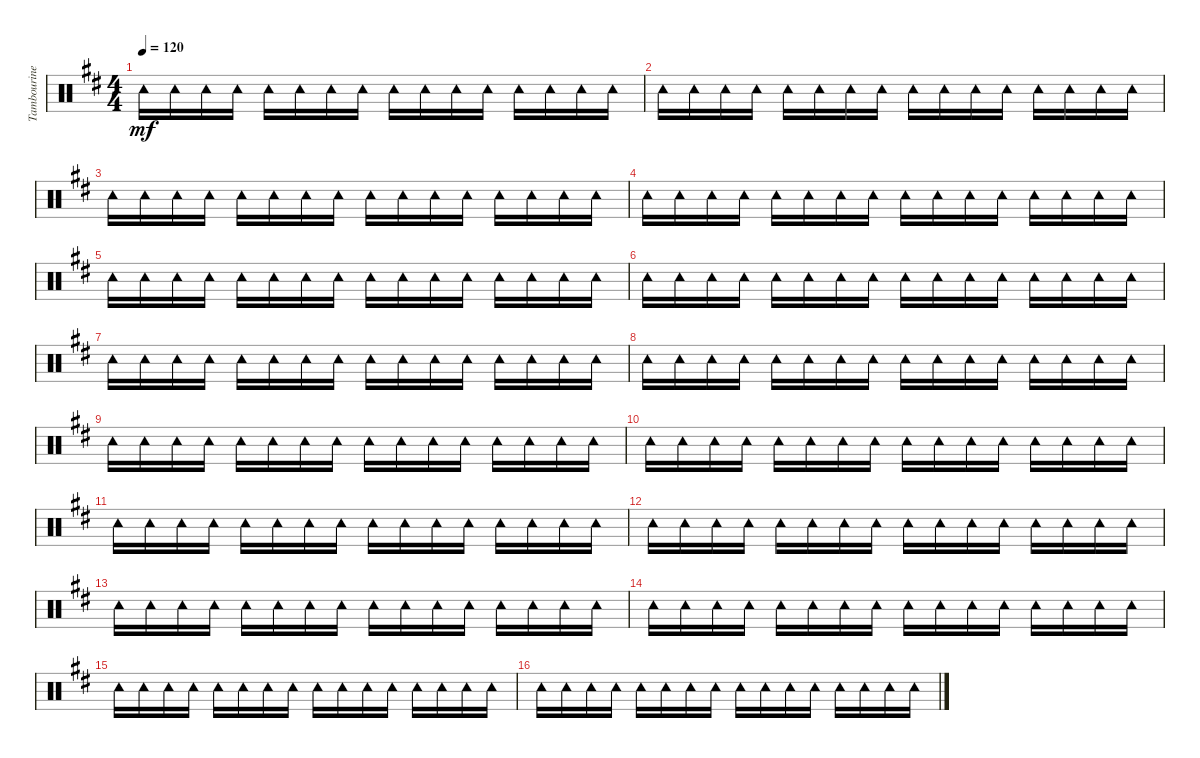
\track ("Tambourine" "Tambourine") {instrument percussion}
\staff {score}
\articulation defaults
\ts (4 4)
\tempo 120
\clef neutral
\ks d "Tambourine (hit)".16{dy mf} "Tambourine (hit)".16 "Tambourine (hit)".16 "Tambourine (hit)".16 "Tambourine (hit)".16 "Tambourine (hit)".16 "Tambourine (hit)".16 "Tambourine (hit)".16 "Tambourine (hit)".16 "Tambourine (hit)".16 "Tambourine (hit)".16 "Tambourine (hit)".16 "Tambourine (hit)".16 "Tambourine (hit)".16 "Tambourine (hit)".16 "Tambourine (hit)".16
|
"Tambourine (hit)".16 "Tambourine (hit)".16 "Tambourine (hit)".16 "Tambourine (hit)".16 "Tambourine (hit)".16 "Tambourine (hit)".16 "Tambourine (hit)".16 "Tambourine (hit)".16 "Tambourine (hit)".16 "Tambourine (hit)".16 "Tambourine (hit)".16 "Tambourine (hit)".16 "Tambourine (hit)".16 "Tambourine (hit)".16 "Tambourine (hit)".16 "Tambourine (hit)".16 |
"Tambourine (hit)".16 "Tambourine (hit)".16 "Tambourine (hit)".16 "Tambourine (hit)".16 "Tambourine (hit)".16 "Tambourine (hit)".16 "Tambourine (hit)".16 "Tambourine (hit)".16 "Tambourine (hit)".16 "Tambourine (hit)".16 "Tambourine (hit)".16 "Tambourine (hit)".16 "Tambourine (hit)".16 "Tambourine (hit)".16 "Tambourine (hit)".16 "Tambourine (hit)".16 |
"Tambourine (hit)".16 "Tambourine (hit)".16 "Tambourine (hit)".16 "Tambourine (hit)".16 "Tambourine (hit)".16 "Tambourine (hit)".16 "Tambourine (hit)".16 "Tambourine (hit)".16 "Tambourine (hit)".16 "Tambourine (hit)".16 "Tambourine (hit)".16 "Tambourine (hit)".16 "Tambourine (hit)".16 "Tambourine (hit)".16 "Tambourine (hit)".16 "Tambourine (hit)".16 |
"Tambourine (hit)".16 "Tambourine (hit)".16 "Tambourine (hit)".16 "Tambourine (hit)".16 "Tambourine (hit)".16 "Tambourine (hit)".16 "Tambourine (hit)".16 "Tambourine (hit)".16 "Tambourine (hit)".16 "Tambourine (hit)".16 "Tambourine (hit)".16 "Tambourine (hit)".16 "Tambourine (hit)".16 "Tambourine (hit)".16 "Tambourine (hit)".16 "Tambourine (hit)".16 |
"Tambourine (hit)".16 "Tambourine (hit)".16 "Tambourine (hit)".16 "Tambourine (hit)".16 "Tambourine (hit)".16 "Tambourine (hit)".16 "Tambourine (hit)".16 "Tambourine (hit)".16 "Tambourine (hit)".16 "Tambourine (hit)".16 "Tambourine (hit)".16 "Tambourine (hit)".16 "Tambourine (hit)".16 "Tambourine (hit)".16 "Tambourine (hit)".16 "Tambourine (hit)".16 |
"Tambourine (hit)".16 "Tambourine (hit)".16 "Tambourine (hit)".16 "Tambourine (hit)".16 "Tambourine (hit)".16 "Tambourine (hit)".16 "Tambourine (hit)".16 "Tambourine (hit)".16 "Tambourine (hit)".16 "Tambourine (hit)".16 "Tambourine (hit)".16 "Tambourine (hit)".16 "Tambourine (hit)".16 "Tambourine (hit)".16 "Tambourine (hit)".16 "Tambourine (hit)".16 |
"Tambourine (hit)".16 "Tambourine (hit)".16 "Tambourine (hit)".16 "Tambourine (hit)".16 "Tambourine (hit)".16 "Tambourine (hit)".16 "Tambourine (hit)".16 "Tambourine (hit)".16 "Tambourine (hit)".16 "Tambourine (hit)".16 "Tambourine (hit)".16 "Tambourine (hit)".16 "Tambourine (hit)".16 "Tambourine (hit)".16 "Tambourine (hit)".16 "Tambourine (hit)".16 |
"Tambourine (hit)".16 "Tambourine (hit)".16 "Tambourine (hit)".16 "Tambourine (hit)".16 "Tambourine (hit)".16 "Tambourine (hit)".16 "Tambourine (hit)".16 "Tambourine (hit)".16 "Tambourine (hit)".16 "Tambourine (hit)".16 "Tambourine (hit)".16 "Tambourine (hit)".16 "Tambourine (hit)".16 "Tambourine (hit)".16 "Tambourine (hit)".16 "Tambourine (hit)".16 |
"Tambourine (hit)".16 "Tambourine (hit)".16 "Tambourine (hit)".16 "Tambourine (hit)".16 "Tambourine (hit)".16 "Tambourine (hit)".16 "Tambourine (hit)".16 "Tambourine (hit)".16 "Tambourine (hit)".16 "Tambourine (hit)".16 "Tambourine (hit)".16 "Tambourine (hit)".16 "Tambourine (hit)".16 "Tambourine (hit)".16 "Tambourine (hit)".16 "Tambourine (hit)".16 |
"Tambourine (hit)".16 "Tambourine (hit)".16 "Tambourine (hit)".16 "Tambourine (hit)".16 "Tambourine (hit)".16 "Tambourine (hit)".16 "Tambourine (hit)".16 "Tambourine (hit)".16 "Tambourine (hit)".16 "Tambourine (hit)".16 "Tambourine (hit)".16 "Tambourine (hit)".16 "Tambourine (hit)".16 "Tambourine (hit)".16 "Tambourine (hit)".16 "Tambourine (hit)".16 |
"Tambourine (hit)".16 "Tambourine (hit)".16 "Tambourine (hit)".16 "Tambourine (hit)".16 "Tambourine (hit)".16 "Tambourine (hit)".16 "Tambourine (hit)".16 "Tambourine (hit)".16 "Tambourine (hit)".16 "Tambourine (hit)".16 "Tambourine (hit)".16 "Tambourine (hit)".16 "Tambourine (hit)".16 "Tambourine (hit)".16 "Tambourine (hit)".16 "Tambourine (hit)".16 |
"Tambourine (hit)".16 "Tambourine (hit)".16 "Tambourine (hit)".16 "Tambourine (hit)".16 "Tambourine (hit)".16 "Tambourine (hit)".16 "Tambourine (hit)".16 "Tambourine (hit)".16 "Tambourine (hit)".16 "Tambourine (hit)".16 "Tambourine (hit)".16 "Tambourine (hit)".16 "Tambourine (hit)".16 "Tambourine (hit)".16 "Tambourine (hit)".16 "Tambourine (hit)".16 |
"Tambourine (hit)".16 "Tambourine (hit)".16 "Tambourine (hit)".16 "Tambourine (hit)".16 "Tambourine (hit)".16 "Tambourine (hit)".16 "Tambourine (hit)".16 "Tambourine (hit)".16 "Tambourine (hit)".16 "Tambourine (hit)".16 "Tambourine (hit)".16 "Tambourine (hit)".16 "Tambourine (hit)".16 "Tambourine (hit)".16 "Tambourine (hit)".16 "Tambourine (hit)".16 |
"Tambourine (hit)".16 "Tambourine (hit)".16 "Tambourine (hit)".16 "Tambourine (hit)".16 "Tambourine (hit)".16 "Tambourine (hit)".16 "Tambourine (hit)".16 "Tambourine (hit)".16 "Tambourine (hit)".16 "Tambourine (hit)".16 "Tambourine (hit)".16 "Tambourine (hit)".16 "Tambourine (hit)".16 "Tambourine (hit)".16 "Tambourine (hit)".16 "Tambourine (hit)".16 |
"Tambourine (hit)".16 "Tambourine (hit)".16 "Tambourine (hit)".16 "Tambourine (hit)".16 "Tambourine (hit)".16 "Tambourine (hit)".16 "Tambourine (hit)".16 "Tambourine (hit)".16 "Tambourine (hit)".16 "Tambourine (hit)".16 "Tambourine (hit)".16 "Tambourine (hit)".16 "Tambourine (hit)".16 "Tambourine (hit)".16 "Tambourine (hit)".16 "Tambourine (hit)".16
